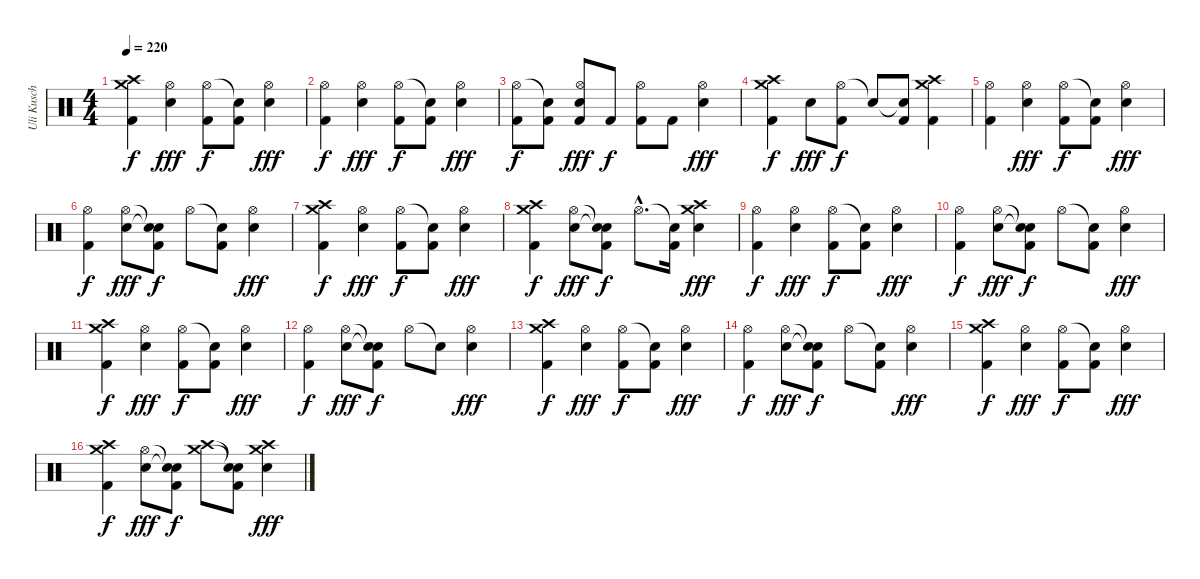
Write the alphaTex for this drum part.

\track ("Uli Kusch" "Uli Kusch") {instrument percussion}
\staff {score}
\articulation defaults
\ts (4 4)
\tempo 220
\clef neutral
\ks c
("Crash high (hit)" "Crash medium (hit)" "Kick (hit) 2").4{dy f} ("Hi-Hat (open)" "Electric Snare (hit)").4{dy fff} ("Hi-Hat (open)" "Kick (hit) 2").8{dy f} ("Snare (hit)"{t} "Kick (hit) 2").8 ("Hi-Hat (open)" "Electric Snare (hit)").4{dy fff} |
("Hi-Hat (open)" "Kick (hit) 2").4{dy f} ("Hi-Hat (open)" "Electric Snare (hit)").4{dy fff} ("Hi-Hat (open)" "Kick (hit) 2").8{dy f} ("Snare (hit)"{t} "Kick (hit) 2").8 ("Hi-Hat (open)" "Electric Snare (hit)").4{dy fff} |
("Hi-Hat (open)" "Kick (hit) 2").8{dy f} ("Snare (hit)"{t} "Kick (hit) 2").8 ("Hi-Hat (open)" "Electric Snare (hit)" "Kick (hit) 2").8{dy fff} "Kick (hit) 2".8{dy f} ("Hi-Hat (open)" "Kick (hit) 2").8 "Kick (hit) 2".8 ("Hi-Hat (open)" "Electric Snare (hit)").4{dy fff} |
("Crash medium (hit)" "Crash high (hit)" "Kick (hit) 2").4{dy f} "Electric Snare (hit)".8{dy fff} ("Hi-Hat (open)" "Kick (hit) 2").8{dy f} "Snare (hit)"{t}.8 ("Snare (hit)"{t} "Kick (hit) 2").8 ("Crash medium (hit)" "Crash high (hit)" "Kick (hit) 2").4 |
("Hi-Hat (open)" "Kick (hit) 2").4 ("Hi-Hat (open)" "Electric Snare (hit)").4{dy fff} ("Hi-Hat (open)" "Kick (hit) 2").8{dy f} ("Snare (hit)"{t} "Kick (hit) 2").8 ("Hi-Hat (open)" "Electric Snare (hit)").4{dy fff} |
("Hi-Hat (open)" "Kick (hit) 2").4{dy f} ("Hi-Hat (open)" "Electric Snare (hit)").8{dy fff} ("Snare (hit)"{t} "Snare (hit)"{t} "Kick (hit) 2").8{dy f} "Hi-Hat (open)".8 ("Snare (hit)"{t} "Kick (hit) 2").8 ("Hi-Hat (open)" "Electric Snare (hit)").4{dy fff} |
("Crash medium (hit)" "Crash high (hit)" "Kick (hit) 2").4{dy f} ("Hi-Hat (open)" "Electric Snare (hit)").4{dy fff} ("Hi-Hat (open)" "Kick (hit) 2").8{dy f} ("Snare (hit)"{t} "Kick (hit) 2").8 ("Hi-Hat (open)" "Electric Snare (hit)").4{dy fff} |
("Crash high (hit)" "Crash medium (hit)" "Kick (hit) 2").4{dy f} ("Hi-Hat (open)" "Electric Snare (hit)").8{dy fff} ("Snare (hit)"{t} "Snare (hit)"{t} "Kick (hit) 2").8{dy f} "Hi-Hat (open)"{hac}.8{d} ("Snare (hit)"{t} "Kick (hit) 2").16 ("Crash high (hit)" "Crash medium (hit)" "Electric Snare (hit)").4{dy fff} |
("Hi-Hat (open)" "Kick (hit) 2").4{dy f} ("Hi-Hat (open)" "Electric Snare (hit)").4{dy fff} ("Hi-Hat (open)" "Kick (hit) 2").8{dy f} ("Snare (hit)"{t} "Kick (hit) 2").8 ("Hi-Hat (open)" "Electric Snare (hit)").4{dy fff} |
("Hi-Hat (open)" "Kick (hit) 2").4{dy f} ("Hi-Hat (open)" "Electric Snare (hit)").8{dy fff} ("Snare (hit)"{t} "Snare (hit)"{t} "Kick (hit) 2").8{dy f} "Hi-Hat (open)".8 ("Snare (hit)"{t} "Kick (hit) 2").8 ("Hi-Hat (open)" "Electric Snare (hit)").4{dy fff} |
("Crash medium (hit)" "Crash high (hit)" "Kick (hit) 2").4{dy f} ("Hi-Hat (open)" "Electric Snare (hit)").4{dy fff} ("Hi-Hat (open)" "Kick (hit) 2").8{dy f} ("Snare (hit)"{t} "Kick (hit) 2").8 ("Hi-Hat (open)" "Electric Snare (hit)").4{dy fff} |
("Hi-Hat (open)" "Kick (hit) 2").4{dy f} ("Hi-Hat (open)" "Electric Snare (hit)").8{dy fff} ("Snare (hit)"{t} "Snare (hit)"{t} "Kick (hit) 2").8{dy f} "Hi-Hat (open)".8 "Snare (hit)"{t}.8 ("Hi-Hat (open)" "Electric Snare (hit)").4{dy fff} |
("Crash medium (hit)" "Crash high (hit)" "Kick (hit) 2").4{dy f} ("Hi-Hat (open)" "Electric Snare (hit)").4{dy fff} ("Hi-Hat (open)" "Kick (hit) 2").8{dy f} ("Snare (hit)"{t} "Kick (hit) 2").8 ("Hi-Hat (open)" "Electric Snare (hit)").4{dy fff} |
("Hi-Hat (open)" "Kick (hit) 2").4{dy f} ("Hi-Hat (open)" "Electric Snare (hit)").8{dy fff} ("Snare (hit)"{t} "Snare (hit)"{t} "Kick (hit) 2").8{dy f} "Hi-Hat (open)".8 ("Snare (hit)"{t} "Kick (hit) 2").8 ("Hi-Hat (open)" "Electric Snare (hit)").4{dy fff} |
("Crash high (hit)" "Crash medium (hit)" "Kick (hit) 2").4{dy f} ("Hi-Hat (open)" "Electric Snare (hit)").4{dy fff} ("Hi-Hat (open)" "Kick (hit) 2").8{dy f} ("Snare (hit)"{t} "Kick (hit) 2").8 ("Hi-Hat (open)" "Electric Snare (hit)").4{dy fff} |
("Crash medium (hit)" "Crash high (hit)" "Kick (hit) 2").4{dy f} ("Hi-Hat (open)" "Electric Snare (hit)").8{dy fff} ("Snare (hit)"{t} "Snare (hit)"{t} "Kick (hit) 2").8{dy f} ("Crash medium (hit)" "Crash high (hit)").8 ("Snare (hit)"{t} "Snare (hit)"{t} "Kick (hit) 2").8 ("Crash medium (hit)" "Crash high (hit)" "Electric Snare (hit)").4{dy fff}
